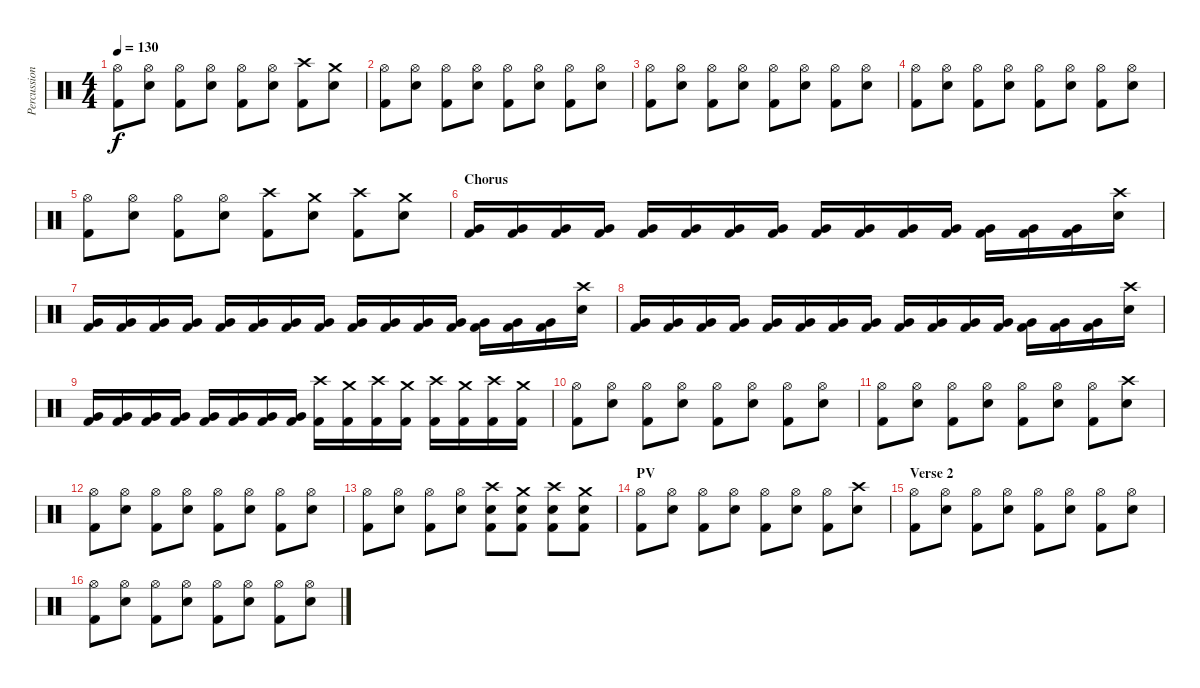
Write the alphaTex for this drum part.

\track ("Percussion" "Percussion") {instrument percussion}
\staff {score}
\articulation defaults
\ts (4 4)
\tempo 130
\clef neutral
\ks c
("Hi-Hat (open)" "Kick (hit) 2").8{dy f} ("Hi-Hat (open)" "Electric Snare (hit)").8 ("Hi-Hat (open)" "Kick (hit) 2").8 ("Hi-Hat (open)" "Electric Snare (hit)").8 ("Hi-Hat (open)" "Kick (hit) 2").8 ("Hi-Hat (open)" "Electric Snare (hit)").8 ("Crash high (hit)" "Kick (hit) 2").8 ("Crash medium (hit)" "Electric Snare (hit)").8 |
("Hi-Hat (open)" "Kick (hit) 2").8 ("Hi-Hat (open)" "Electric Snare (hit)").8 ("Hi-Hat (open)" "Kick (hit) 2").8 ("Hi-Hat (open)" "Electric Snare (hit)").8 ("Hi-Hat (open)" "Kick (hit) 2").8 ("Hi-Hat (open)" "Electric Snare (hit)").8 ("Hi-Hat (open)" "Kick (hit) 2").8 ("Hi-Hat (open)" "Electric Snare (hit)").8 |
("Hi-Hat (open)" "Kick (hit) 2").8 ("Hi-Hat (open)" "Electric Snare (hit)").8 ("Hi-Hat (open)" "Kick (hit) 2").8 ("Hi-Hat (open)" "Electric Snare (hit)").8 ("Hi-Hat (open)" "Kick (hit) 2").8 ("Hi-Hat (open)" "Electric Snare (hit)").8 ("Hi-Hat (open)" "Kick (hit) 2").8 ("Hi-Hat (open)" "Electric Snare (hit)").8 |
("Hi-Hat (open)" "Kick (hit) 2").8 ("Hi-Hat (open)" "Electric Snare (hit)").8 ("Hi-Hat (open)" "Kick (hit) 2").8 ("Hi-Hat (open)" "Electric Snare (hit)").8 ("Hi-Hat (open)" "Kick (hit) 2").8 ("Hi-Hat (open)" "Electric Snare (hit)").8 ("Hi-Hat (open)" "Kick (hit) 2").8 ("Hi-Hat (open)" "Electric Snare (hit)").8 |
("Hi-Hat (open)" "Kick (hit) 2").8 ("Hi-Hat (open)" "Electric Snare (hit)").8 ("Hi-Hat (open)" "Kick (hit) 2").8 ("Hi-Hat (open)" "Electric Snare (hit)").8 ("Crash high (hit)" "Kick (hit) 2").8 ("Crash medium (hit)" "Electric Snare (hit)").8 ("Crash high (hit)" "Kick (hit) 2").8 ("Crash medium (hit)" "Electric Snare (hit)").8 |
\section ("" "Chorus")
("Very Low Tom (hit)" "Kick (hit) 2").16 ("Very Low Tom (hit)" "Kick (hit) 2").16 ("Very Low Tom (hit)" "Kick (hit) 2").16 ("Very Low Tom (hit)" "Kick (hit) 2").16 ("Very Low Tom (hit)" "Kick (hit) 2").16 ("Very Low Tom (hit)" "Kick (hit) 2").16 ("Very Low Tom (hit)" "Kick (hit) 2").16 ("Very Low Tom (hit)" "Kick (hit) 2").16 ("Very Low Tom (hit)" "Kick (hit) 2").16 ("Very Low Tom (hit)" "Kick (hit) 2").16 ("Very Low Tom (hit)" "Kick (hit) 2").16 ("Very Low Tom (hit)" "Kick (hit) 2").16 ("Very Low Tom (hit)" "Kick (hit) 2").16 ("Very Low Tom (hit)" "Kick (hit) 2").16 ("Very Low Tom (hit)" "Kick (hit) 2").16 ("Crash high (hit)" "Electric Snare (hit)").16 |
("Very Low Tom (hit)" "Kick (hit) 2").16 ("Very Low Tom (hit)" "Kick (hit) 2").16 ("Very Low Tom (hit)" "Kick (hit) 2").16 ("Very Low Tom (hit)" "Kick (hit) 2").16 ("Very Low Tom (hit)" "Kick (hit) 2").16 ("Very Low Tom (hit)" "Kick (hit) 2").16 ("Very Low Tom (hit)" "Kick (hit) 2").16 ("Very Low Tom (hit)" "Kick (hit) 2").16 ("Very Low Tom (hit)" "Kick (hit) 2").16 ("Very Low Tom (hit)" "Kick (hit) 2").16 ("Very Low Tom (hit)" "Kick (hit) 2").16 ("Very Low Tom (hit)" "Kick (hit) 2").16 ("Very Low Tom (hit)" "Kick (hit) 2").16 ("Very Low Tom (hit)" "Kick (hit) 2").16 ("Very Low Tom (hit)" "Kick (hit) 2").16 ("Crash high (hit)" "Electric Snare (hit)").16 |
("Very Low Tom (hit)" "Kick (hit) 2").16 ("Very Low Tom (hit)" "Kick (hit) 2").16 ("Very Low Tom (hit)" "Kick (hit) 2").16 ("Very Low Tom (hit)" "Kick (hit) 2").16 ("Very Low Tom (hit)" "Kick (hit) 2").16 ("Very Low Tom (hit)" "Kick (hit) 2").16 ("Very Low Tom (hit)" "Kick (hit) 2").16 ("Very Low Tom (hit)" "Kick (hit) 2").16 ("Very Low Tom (hit)" "Kick (hit) 2").16 ("Very Low Tom (hit)" "Kick (hit) 2").16 ("Very Low Tom (hit)" "Kick (hit) 2").16 ("Very Low Tom (hit)" "Kick (hit) 2").16 ("Very Low Tom (hit)" "Kick (hit) 2").16 ("Very Low Tom (hit)" "Kick (hit) 2").16 ("Very Low Tom (hit)" "Kick (hit) 2").16 ("Crash high (hit)" "Electric Snare (hit)").16 |
("Very Low Tom (hit)" "Kick (hit) 2").16 ("Very Low Tom (hit)" "Kick (hit) 2").16 ("Very Low Tom (hit)" "Kick (hit) 2").16 ("Very Low Tom (hit)" "Kick (hit) 2").16 ("Very Low Tom (hit)" "Kick (hit) 2").16 ("Very Low Tom (hit)" "Kick (hit) 2").16 ("Very Low Tom (hit)" "Kick (hit) 2").16 ("Very Low Tom (hit)" "Kick (hit) 2").16 ("Crash high (hit)" "Kick (hit) 2").16 ("Crash medium (hit)" "Kick (hit) 2").16 ("Crash high (hit)" "Kick (hit) 2").16 ("Crash medium (hit)" "Kick (hit) 2").16 ("Crash high (hit)" "Kick (hit) 2").16 ("Crash medium (hit)" "Kick (hit) 2").16 ("Crash high (hit)" "Kick (hit) 2").16 ("Crash medium (hit)" "Kick (hit) 2").16 |
("Hi-Hat (open)" "Kick (hit) 2").8 ("Hi-Hat (open)" "Electric Snare (hit)").8 ("Hi-Hat (open)" "Kick (hit) 2").8 ("Hi-Hat (open)" "Electric Snare (hit)").8 ("Hi-Hat (open)" "Kick (hit) 2").8 ("Hi-Hat (open)" "Electric Snare (hit)").8 ("Hi-Hat (open)" "Kick (hit) 2").8 ("Hi-Hat (open)" "Electric Snare (hit)").8 |
("Hi-Hat (open)" "Kick (hit) 2").8 ("Hi-Hat (open)" "Electric Snare (hit)").8 ("Hi-Hat (open)" "Kick (hit) 2").8 ("Hi-Hat (open)" "Electric Snare (hit)").8 ("Hi-Hat (open)" "Kick (hit) 2").8 ("Hi-Hat (open)" "Electric Snare (hit)").8 ("Hi-Hat (open)" "Kick (hit) 2").8 ("Crash high (hit)" "Electric Snare (hit)").8 |
("Hi-Hat (open)" "Kick (hit) 2").8 ("Hi-Hat (open)" "Electric Snare (hit)").8 ("Hi-Hat (open)" "Kick (hit) 2").8 ("Hi-Hat (open)" "Electric Snare (hit)").8 ("Hi-Hat (open)" "Kick (hit) 2").8 ("Hi-Hat (open)" "Electric Snare (hit)").8 ("Hi-Hat (open)" "Kick (hit) 2").8 ("Hi-Hat (open)" "Electric Snare (hit)").8 |
("Hi-Hat (open)" "Kick (hit) 2").8 ("Hi-Hat (open)" "Electric Snare (hit)").8 ("Hi-Hat (open)" "Kick (hit) 2").8 ("Hi-Hat (open)" "Electric Snare (hit)").8 ("Crash high (hit)" "Electric Snare (hit)" "Kick (hit) 2").8 ("Crash medium (hit)" "Electric Snare (hit)" "Kick (hit) 2").8 ("Crash high (hit)" "Electric Snare (hit)" "Kick (hit) 2").8 ("Crash medium (hit)" "Electric Snare (hit)" "Kick (hit) 2").8 |
\section ("" "PV")
("Hi-Hat (open)" "Kick (hit) 2").8 ("Hi-Hat (open)" "Electric Snare (hit)").8 ("Hi-Hat (open)" "Kick (hit) 2").8 ("Hi-Hat (open)" "Electric Snare (hit)").8 ("Hi-Hat (open)" "Kick (hit) 2").8 ("Hi-Hat (open)" "Electric Snare (hit)").8 ("Hi-Hat (open)" "Kick (hit) 2").8 ("Crash high (hit)" "Electric Snare (hit)").8 |
\section ("" "Verse 2")
("Hi-Hat (open)" "Kick (hit) 2").8 ("Hi-Hat (open)" "Electric Snare (hit)").8 ("Hi-Hat (open)" "Kick (hit) 2").8 ("Hi-Hat (open)" "Electric Snare (hit)").8 ("Hi-Hat (open)" "Kick (hit) 2").8 ("Hi-Hat (open)" "Electric Snare (hit)").8 ("Hi-Hat (open)" "Kick (hit) 2").8 ("Hi-Hat (open)" "Electric Snare (hit)").8 |
("Hi-Hat (open)" "Kick (hit) 2").8 ("Hi-Hat (open)" "Electric Snare (hit)").8 ("Hi-Hat (open)" "Kick (hit) 2").8 ("Hi-Hat (open)" "Electric Snare (hit)").8 ("Hi-Hat (open)" "Kick (hit) 2").8 ("Hi-Hat (open)" "Electric Snare (hit)").8 ("Hi-Hat (open)" "Kick (hit) 2").8 ("Hi-Hat (open)" "Electric Snare (hit)").8
